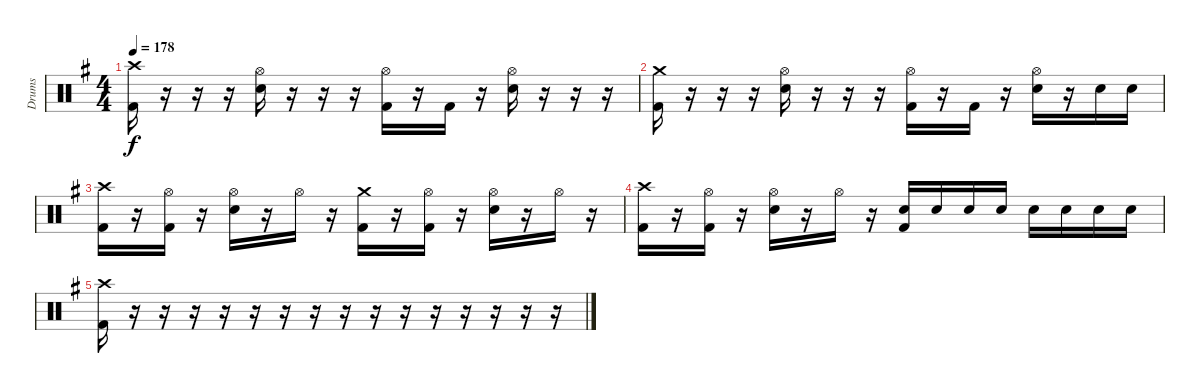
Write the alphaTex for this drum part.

\track ("Drums" "Drums") {instrument percussion}
\staff {score}
\articulation defaults
\ts (4 4)
\tempo 178
\clef neutral
\ks g
("Crash high (hit)" "Kick (hit) 2").16{dy f} r.16 r.16 r.16 ("Hi-Hat (open)" "Electric Snare (hit)").16 r.16 r.16 r.16 ("Hi-Hat (open)" "Kick (hit) 2").16 r.16 "Kick (hit) 2".16 r.16 ("Hi-Hat (open)" "Electric Snare (hit)").16 r.16 r.16 r.16 |
("Crash medium (hit)" "Kick (hit) 2").16 r.16 r.16 r.16 ("Hi-Hat (open)" "Electric Snare (hit)").16 r.16 r.16 r.16 ("Hi-Hat (open)" "Kick (hit) 2").16 r.16 "Kick (hit) 2".16 r.16 ("Hi-Hat (open)" "Electric Snare (hit)").16 r.16 "Electric Snare (hit)".16 "Electric Snare (hit)".16 |
("Crash high (hit)" "Kick (hit) 2").16 r.16 ("Hi-Hat (open)" "Kick (hit) 2").16 r.16 ("Hi-Hat (open)" "Electric Snare (hit)").16 r.16 "Hi-Hat (open)".16 r.16 ("Crash medium (hit)" "Kick (hit) 2").16 r.16 ("Hi-Hat (open)" "Kick (hit) 2").16 r.16 ("Hi-Hat (open)" "Electric Snare (hit)").16 r.16 "Hi-Hat (open)".16 r.16 |
("Crash high (hit)" "Kick (hit) 2").16 r.16 ("Hi-Hat (open)" "Kick (hit) 2").16 r.16 ("Hi-Hat (open)" "Electric Snare (hit)").16 r.16 "Hi-Hat (open)".16 r.16 ("Electric Snare (hit)" "Kick (hit) 2").16 "Electric Snare (hit)".16 "Electric Snare (hit)".16 "Electric Snare (hit)".16 "Electric Snare (hit)".16 "Electric Snare (hit)".16 "Electric Snare (hit)".16 "Electric Snare (hit)".16 |
("Crash high (hit)" "Kick (hit) 2").16 r.16 r.16 r.16 r.16 r.16 r.16 r.16 r.16 r.16 r.16 r.16 r.16 r.16 r.16 r.16
